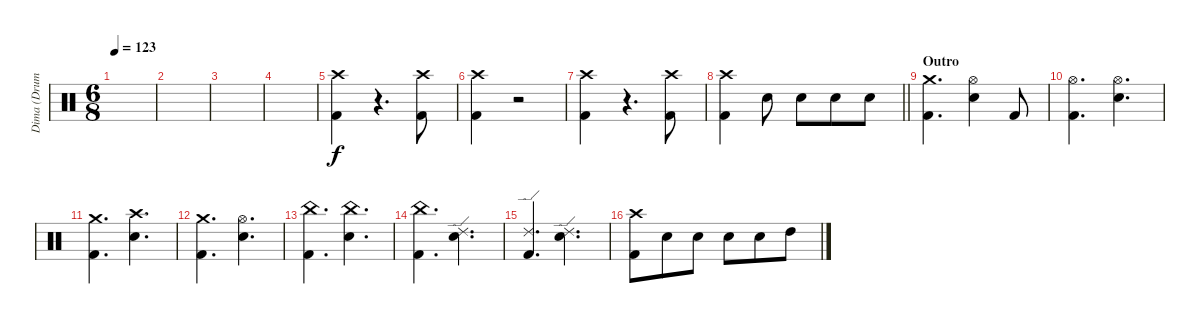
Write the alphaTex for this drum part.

\track ("Dima (Drums)" "Dima (Drum") {instrument percussion}
\staff {score}
\articulation defaults
\ts (6 8)
\tempo 123
\clef neutral
\ks c
|
|
|
|
("Crash high (hit)" "Kick (hit) 2").4 r.4{d} ("Crash high (hit)" "Kick (hit) 2").8 |
("Crash high (hit)" "Kick (hit) 2").4 r.2 |
("Crash high (hit)" "Kick (hit) 2").4 r.4{d} ("Crash high (hit)" "Kick (hit) 2").8 |
\barLineRight lightlight
("Crash high (hit)" "Kick (hit) 2").4 "Snare (hit) 2".8 "Snare (hit) 2".8 "Snare (hit) 2".8 "Snare (hit) 2".8 |
\section ("" "Outro")
("Crash medium (hit)" "Kick (hit) 2").4{d} ("Hi-Hat (open)" "Snare (hit) 2").4 "Kick (hit) 2".8 |
("Hi-Hat (open)" "Kick (hit) 2").4{d} ("Hi-Hat (open)" "Snare (hit) 2").4{d} |
("Crash medium (hit)" "Kick (hit) 2").4{d} ("Crash high (hit)" "Snare (hit) 2").4{d} |
("Crash medium (hit)" "Kick (hit) 2").4{d} ("Hi-Hat (open)" "Snare (hit) 2").4{d} |
("China (hit)" "Kick (hit) 2").4{d} ("China (hit)" "Snare (hit) 2").4{d} |
("China (hit)" "Kick (hit) 2").4{d} ("Ride (edge) 2" "Snare (hit) 2").4{d} |
("Ride (edge) 2" "Kick (hit) 2").4{d} ("Ride (edge) 2" "Snare (hit) 2").4{d} |
("Crash high (hit)" "Kick (hit) 2").8 "Snare (hit) 2".8 "Snare (hit) 2".8 "Snare (hit) 2".8 "Snare (hit) 2".8 "High Tom (hit)".8
